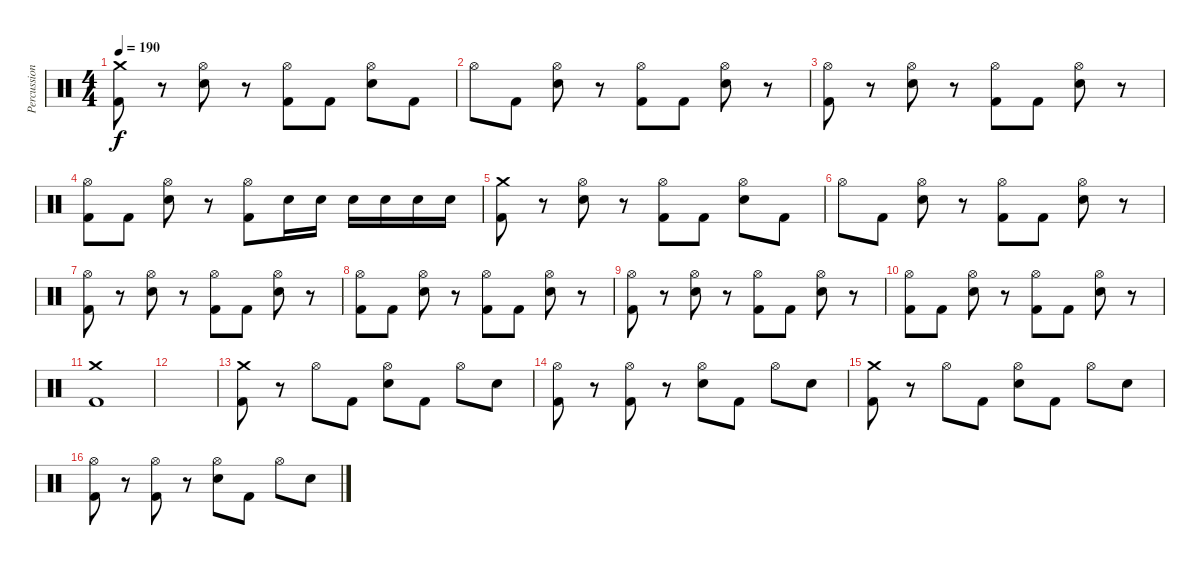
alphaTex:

\track ("Percussion" "Percussion") {instrument percussion}
\staff {score}
\articulation defaults
\ts (4 4)
\tempo 190
\clef neutral
\ks c
("Crash medium (hit)" "Kick (hit) 2").8{dy f} r.8 ("Hi-Hat (open)" "Electric Snare (hit)").8 r.8 ("Hi-Hat (open)" "Kick (hit) 2").8 "Kick (hit) 2".8 ("Hi-Hat (open)" "Electric Snare (hit)").8 "Kick (hit) 2".8 |
"Hi-Hat (open)".8 "Kick (hit) 2".8 ("Hi-Hat (open)" "Electric Snare (hit)").8 r.8 ("Hi-Hat (open)" "Kick (hit) 2").8 "Kick (hit) 2".8 ("Hi-Hat (open)" "Electric Snare (hit)").8 r.8 |
("Hi-Hat (open)" "Kick (hit) 2").8 r.8 ("Hi-Hat (open)" "Electric Snare (hit)").8 r.8 ("Hi-Hat (open)" "Kick (hit) 2").8 "Kick (hit) 2".8 ("Hi-Hat (open)" "Electric Snare (hit)").8 r.8 |
("Hi-Hat (open)" "Kick (hit) 2").8 "Kick (hit) 2".8 ("Hi-Hat (open)" "Electric Snare (hit)").8 r.8 ("Hi-Hat (open)" "Kick (hit) 2").8 "Electric Snare (hit)".16 "Electric Snare (hit)".16 "Electric Snare (hit)".16 "Electric Snare (hit)".16 "Electric Snare (hit)".16 "Electric Snare (hit)".16 |
("Crash medium (hit)" "Kick (hit) 2").8 r.8 ("Hi-Hat (open)" "Electric Snare (hit)").8 r.8 ("Hi-Hat (open)" "Kick (hit) 2").8 "Kick (hit) 2".8 ("Hi-Hat (open)" "Electric Snare (hit)").8 "Kick (hit) 2".8 |
"Hi-Hat (open)".8 "Kick (hit) 2".8 ("Hi-Hat (open)" "Electric Snare (hit)").8 r.8 ("Hi-Hat (open)" "Kick (hit) 2").8 "Kick (hit) 2".8 ("Hi-Hat (open)" "Electric Snare (hit)").8 r.8 |
("Hi-Hat (open)" "Kick (hit) 2").8 r.8 ("Hi-Hat (open)" "Electric Snare (hit)").8 r.8 ("Hi-Hat (open)" "Kick (hit) 2").8 "Kick (hit) 2".8 ("Hi-Hat (open)" "Electric Snare (hit)").8 r.8 |
("Hi-Hat (open)" "Kick (hit) 2").8 "Kick (hit) 2".8 ("Hi-Hat (open)" "Electric Snare (hit)").8 r.8 ("Hi-Hat (open)" "Kick (hit) 2").8 "Kick (hit) 2".8 ("Hi-Hat (open)" "Electric Snare (hit)").8 r.8 |
("Hi-Hat (open)" "Kick (hit) 2").8 r.8 ("Hi-Hat (open)" "Electric Snare (hit)").8 r.8 ("Hi-Hat (open)" "Kick (hit) 2").8 "Kick (hit) 2".8 ("Hi-Hat (open)" "Electric Snare (hit)").8 r.8 |
("Hi-Hat (open)" "Kick (hit) 2").8 "Kick (hit) 2".8 ("Hi-Hat (open)" "Electric Snare (hit)").8 r.8 ("Hi-Hat (open)" "Kick (hit) 2").8 "Kick (hit) 2".8 ("Hi-Hat (open)" "Electric Snare (hit)").8 r.8 |
("Crash medium (hit)" "Kick (hit) 2").1 |
|
("Crash medium (hit)" "Kick (hit) 2").8 r.8 "Hi-Hat (open)".8 "Kick (hit) 2".8 ("Hi-Hat (open)" "Electric Snare (hit)").8 "Kick (hit) 2".8 "Hi-Hat (open)".8 "Electric Snare (hit)".8 |
("Hi-Hat (open)" "Kick (hit) 2").8 r.8 ("Hi-Hat (open)" "Kick (hit) 2").8 r.8 ("Hi-Hat (open)" "Electric Snare (hit)").8 "Kick (hit) 2".8 "Hi-Hat (open)".8 "Electric Snare (hit)".8 |
("Crash medium (hit)" "Kick (hit) 2").8 r.8 "Hi-Hat (open)".8 "Kick (hit) 2".8 ("Hi-Hat (open)" "Electric Snare (hit)").8 "Kick (hit) 2".8 "Hi-Hat (open)".8 "Electric Snare (hit)".8 |
("Hi-Hat (open)" "Kick (hit) 2").8 r.8 ("Hi-Hat (open)" "Kick (hit) 2").8 r.8 ("Hi-Hat (open)" "Electric Snare (hit)").8 "Kick (hit) 2".8 "Hi-Hat (open)".8 "Electric Snare (hit)".8
